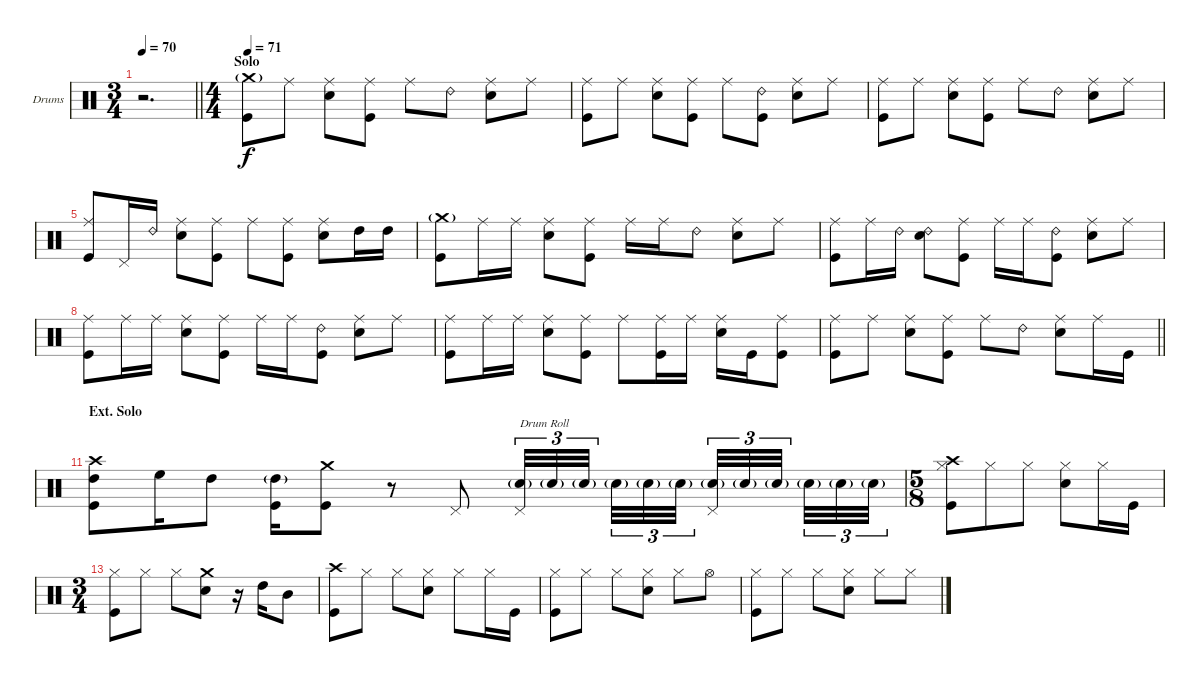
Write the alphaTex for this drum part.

\bracketExtendMode nobrackets
\firstSystemTrackNameOrientation horizontal
\otherSystemsTrackNameOrientation horizontal
\defaultBarNumberDisplay FirstOfSystem
\track ("Drumkit" "Drums") {instrument percussion}
\staff {score}
\articulation defaults
\ts (3 4)
\tempo 70
\clef neutral
\barLineRight lightlight
\ks c
r.2{d dy f} |
\ts (4 4)
\section ("" "Solo")
\tempo 71
("Crash medium (hit)"{g} "Kick (hit)").8 "Ride (middle)".8 ("Ride (middle)" "Snare (hit) 2").8 ("Ride (middle)" "Kick (hit)").8 "Ride (middle)".8 "Ride (bell) 2".8 ("Ride (middle)" "Snare (hit) 2").8 "Ride (middle)".8 |
("Ride (middle)" "Kick (hit)").8 "Ride (middle)".8 ("Ride (middle)" "Snare (hit) 2").8 ("Ride (middle)" "Kick (hit)").8 "Ride (middle)".8 ("Ride (bell) 2" "Kick (hit)").8 ("Ride (middle)" "Snare (hit) 2").8 "Ride (middle)".8 |
("Ride (middle)" "Kick (hit)").8 "Ride (middle)".8 ("Ride (middle)" "Snare (hit) 2").8 ("Ride (middle)" "Kick (hit)").8 "Ride (middle)".8 "Ride (bell) 2".8 ("Ride (middle)" "Snare (hit) 2").8 "Ride (middle)".8 |
("Ride (middle)" "Kick (hit)").8 "Pedal Hi-Hat (hit)".16 "Ride (bell) 2".16 ("Ride (middle)" "Snare (hit) 2").8 ("Ride (middle)" "Kick (hit)").8 "Ride (middle)".8 ("Ride (middle)" "Kick (hit)").8 ("Ride (middle)" "Snare (hit) 2").8 "High Tom (hit)".16 "High Tom (hit)".16 |
("Crash medium (hit)"{g} "Kick (hit)").8 "Ride (middle)".16 "Ride (middle)".16 ("Ride (middle)" "Snare (hit) 2").8 ("Ride (middle)" "Kick (hit)").8 "Ride (middle)".16 "Ride (middle)".16 "Ride (bell) 2".8 ("Ride (middle)" "Snare (hit) 2").8 "Ride (middle)".8 |
("Ride (middle)" "Kick (hit)").8 "Ride (middle)".16 "Ride (bell) 2".16 ("Ride (bell) 2" "Snare (hit) 2").8 ("Ride (middle)" "Kick (hit)").8 "Ride (middle)".16 "Ride (middle)".16 ("Ride (bell) 2" "Kick (hit)").8 ("Ride (middle)" "Snare (hit) 2").8 "Ride (middle)".8 |
("Ride (middle)" "Kick (hit)").8 "Ride (middle)".16 "Ride (middle)".16 ("Ride (middle)" "Snare (hit) 2").8 ("Ride (middle)" "Kick (hit)").8 "Ride (middle)".16 "Ride (middle)".16 ("Ride (bell) 2" "Kick (hit)").8 ("Ride (middle)" "Snare (hit) 2").8 "Ride (middle)".8 |
("Ride (middle)" "Kick (hit)").8 "Ride (middle)".16 "Ride (middle)".16 ("Ride (middle)" "Snare (hit) 2").8 ("Ride (middle)" "Kick (hit)").8 "Ride (middle)".8 ("Ride (middle)" "Kick (hit)").16 "Ride (middle)".16 ("Ride (middle)" "Snare (hit) 2").16 "Kick (hit)".16 ("Ride (middle)" "Kick (hit)").8 |
\barLineRight lightlight
("Ride (middle)" "Kick (hit)").8 "Ride (middle)".8 ("Ride (middle)" "Snare (hit) 2").8 ("Ride (middle)" "Kick (hit)").8 "Ride (middle)".8 "Ride (bell) 2".8 ("Ride (middle)" "Snare (hit) 2").8 "Ride (middle)".16 "Kick (hit)".16 |
\section ("" "Ext. Solo")
("Crash high (hit)" "High Tom (hit)" "Kick (hit)").8 "High Floor Tom (hit)".16 "High Tom (hit)".8 ("High Tom (hit)"{g} "Kick (hit)").16 ("Crash medium (hit)" "Kick (hit)").8 r.8 "Pedal Hi-Hat (hit)".8 ("Pedal Hi-Hat (hit)" "Snare (hit) 2"{g}).32{tu (3 2) txt "Drum Roll"} "Snare (hit) 2"{g}.32{tu (3 2)} "Snare (hit) 2"{g}.32{tu (3 2)} "Snare (hit) 2"{g}.32{tu (3 2)} "Snare (hit) 2"{g}.32{tu (3 2)} "Snare (hit) 2"{g}.32{tu (3 2)} ("Pedal Hi-Hat (hit)" "Snare (hit) 2"{g}).32{tu (3 2)} "Snare (hit) 2"{g}.32{tu (3 2)} "Snare (hit) 2"{g}.32{tu (3 2)} "Snare (hit) 2"{g}.32{tu (3 2)} "Snare (hit) 2"{g}.32{tu (3 2)} "Snare (hit) 2"{g}.32{tu (3 2)} |
\ts (5 8)
("Hi-Hat (closed)" "Crash high (hit)" "Kick (hit)").8 "Hi-Hat (closed)".8 "Hi-Hat (closed)".8 ("Hi-Hat (closed)" "Snare (hit) 2").8 "Hi-Hat (closed)".16 "Kick (hit)".16 |
\ts (3 4)
("Hi-Hat (closed)" "Kick (hit)").8 "Hi-Hat (closed)".8 "Hi-Hat (closed)".8 ("Crash medium (hit)" "Snare (hit) 2").8 r.16 "High Tom (hit)".16 "Mid Tom (hit)".8 |
("Crash high (hit)" "Kick (hit)").8 "Hi-Hat (closed)".8 "Hi-Hat (closed)".8 ("Hi-Hat (closed)" "Snare (hit) 2").8 "Hi-Hat (closed)".8 "Hi-Hat (closed)".16 "Kick (hit)".16 |
("Hi-Hat (closed)" "Kick (hit)").8 "Hi-Hat (closed)".8 "Hi-Hat (closed)".8 ("Hi-Hat (closed)" "Snare (hit) 2").8 "Hi-Hat (closed)".8 "Hi-Hat (open)".8 |
("Hi-Hat (closed)" "Kick (hit)").8 "Hi-Hat (closed)".8 "Hi-Hat (closed)".8 ("Hi-Hat (closed)" "Snare (hit) 2").8 "Hi-Hat (closed)".8 "Hi-Hat (closed)".8
